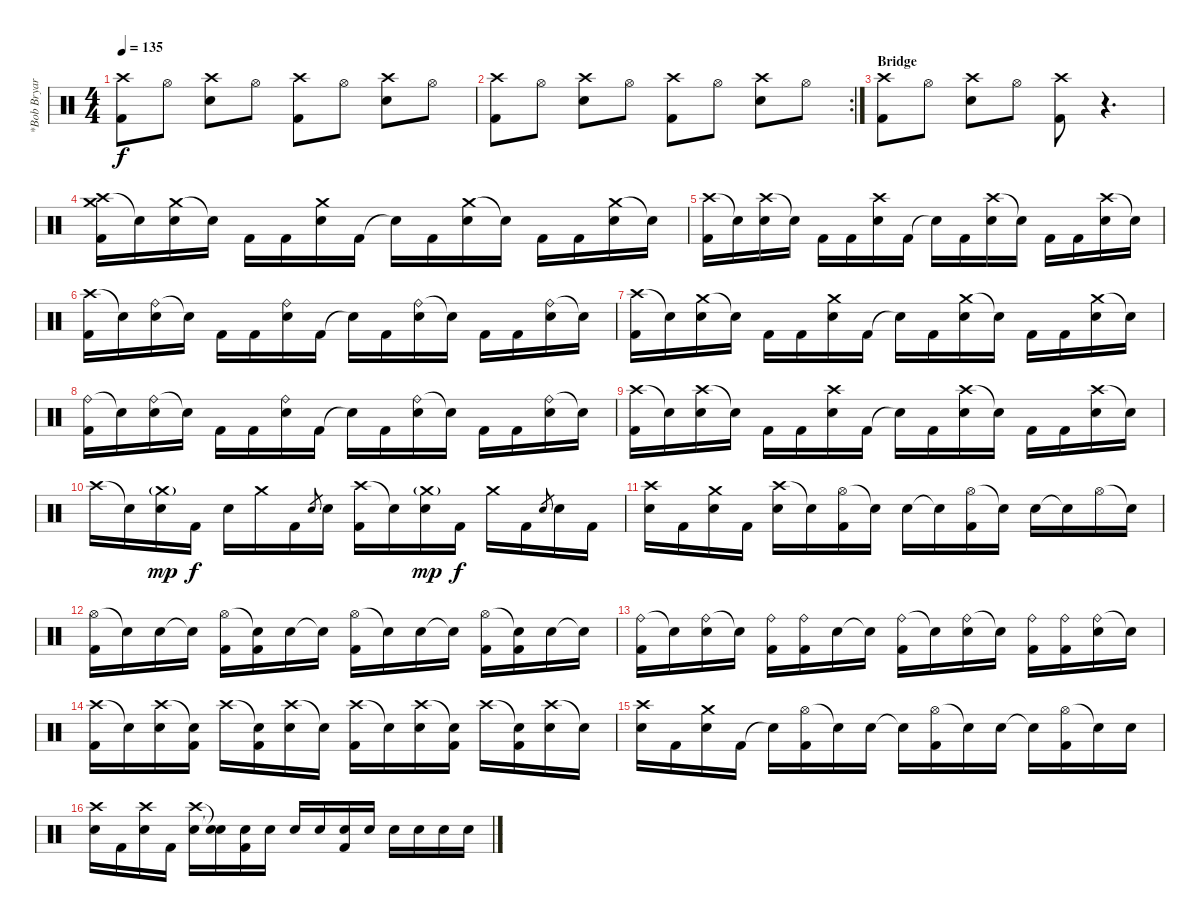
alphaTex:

\track ("*Bob Bryar" "*Bob Bryar") {instrument percussion}
\staff {score}
\articulation defaults
\ts (4 4)
\tempo 135
\clef neutral
\ks c
("Crash high (hit)" "Kick (hit) 2").8{dy f} "Hi-Hat (open)".8 ("Crash high (hit)" "Electric Snare (hit)").8 "Hi-Hat (open)".8 ("Crash high (hit)" "Kick (hit) 2").8 "Hi-Hat (open)".8 ("Crash high (hit)" "Electric Snare (hit)").8 "Hi-Hat (open)".8 |
\rc 2
("Crash high (hit)" "Kick (hit) 2").8 "Hi-Hat (open)".8 ("Crash high (hit)" "Electric Snare (hit)").8 "Hi-Hat (open)".8 ("Crash high (hit)" "Kick (hit) 2").8 "Hi-Hat (open)".8 ("Crash high (hit)" "Electric Snare (hit)").8 "Hi-Hat (open)".8 |
\section ("" "Bridge")
("Crash high (hit)" "Kick (hit) 2").8 "Hi-Hat (open)".8 ("Crash high (hit)" "Electric Snare (hit)").8 "Hi-Hat (open)".8 ("Crash high (hit)" "Kick (hit) 2").8 r.4{d} |
("Crash high (hit)" "Crash medium (hit)" "Kick (hit) 2").16 "Snare (hit)"{t}.16 ("Crash medium (hit)" "Electric Snare (hit)").16 "Snare (hit)"{t}.16 "Kick (hit) 2".16 "Kick (hit) 2".16 ("Crash medium (hit)" "Electric Snare (hit)").16 "Kick (hit) 2".16 "Snare (hit)"{t}.16 "Kick (hit) 2".16 ("Crash medium (hit)" "Electric Snare (hit)").16 "Snare (hit)"{t}.16 "Kick (hit) 2".16 "Kick (hit) 2".16 ("Crash medium (hit)" "Electric Snare (hit)").16 "Snare (hit)"{t}.16 |
("Crash high (hit)" "Kick (hit) 2").16 "Snare (hit)"{t}.16 ("Crash high (hit)" "Electric Snare (hit)").16 "Snare (hit)"{t}.16 "Kick (hit) 2".16 "Kick (hit) 2".16 ("Crash high (hit)" "Electric Snare (hit)").16 "Kick (hit) 2".16 "Snare (hit)"{t}.16 "Kick (hit) 2".16 ("Crash high (hit)" "Electric Snare (hit)").16 "Snare (hit)"{t}.16 "Kick (hit) 2".16 "Kick (hit) 2".16 ("Crash high (hit)" "Electric Snare (hit)").16 "Snare (hit)"{t}.16 |
("Crash high (hit)" "Kick (hit) 2").16 "Snare (hit)"{t}.16 ("Ride (bell)" "Electric Snare (hit)").16 "Snare (hit)"{t}.16 "Kick (hit) 2".16 "Kick (hit) 2".16 ("Ride (bell)" "Electric Snare (hit)").16 "Kick (hit) 2".16 "Snare (hit)"{t}.16 "Kick (hit) 2".16 ("Ride (bell)" "Electric Snare (hit)").16 "Snare (hit)"{t}.16 "Kick (hit) 2".16 "Kick (hit) 2".16 ("Ride (bell)" "Electric Snare (hit)").16 "Snare (hit)"{t}.16 |
("Crash high (hit)" "Kick (hit) 2").16 "Snare (hit)"{t}.16 ("Crash medium (hit)" "Electric Snare (hit)").16 "Snare (hit)"{t}.16 "Kick (hit) 2".16 "Kick (hit) 2".16 ("Crash medium (hit)" "Electric Snare (hit)").16 "Kick (hit) 2".16 "Snare (hit)"{t}.16 "Kick (hit) 2".16 ("Crash medium (hit)" "Electric Snare (hit)").16 "Snare (hit)"{t}.16 "Kick (hit) 2".16 "Kick (hit) 2".16 ("Crash medium (hit)" "Electric Snare (hit)").16 "Snare (hit)"{t}.16 |
("Ride (bell)" "Kick (hit) 2").16 "Snare (hit)"{t}.16 ("Ride (bell)" "Electric Snare (hit)").16 "Snare (hit)"{t}.16 "Kick (hit) 2".16 "Kick (hit) 2".16 ("Ride (bell)" "Electric Snare (hit)").16 "Kick (hit) 2".16 "Snare (hit)"{t}.16 "Kick (hit) 2".16 ("Ride (bell)" "Electric Snare (hit)").16 "Snare (hit)"{t}.16 "Kick (hit) 2".16 "Kick (hit) 2".16 ("Ride (bell)" "Electric Snare (hit)").16 "Snare (hit)"{t}.16 |
("Crash high (hit)" "Kick (hit) 2").16 "Snare (hit)"{t}.16 ("Crash high (hit)" "Electric Snare (hit)").16 "Snare (hit)"{t}.16 "Kick (hit) 2".16 "Kick (hit) 2".16 ("Crash high (hit)" "Electric Snare (hit)").16 "Kick (hit) 2".16 "Snare (hit)"{t}.16 "Kick (hit) 2".16 ("Crash high (hit)" "Electric Snare (hit)").16 "Snare (hit)"{t}.16 "Kick (hit) 2".16 "Kick (hit) 2".16 ("Crash high (hit)" "Electric Snare (hit)").16 "Snare (hit)"{t}.16 |
"Crash high (hit)".16 "Snare (hit)"{t}.16 ("Crash medium (hit)"{g} "Electric Snare (hit)").16{dy mp} "Kick (hit) 2".16{dy f} "Electric Snare (hit)".16 "Crash medium (hit)".16 "Kick (hit) 2".16 "Electric Snare (hit)".8{gr} "Electric Snare (hit)".16 ("Crash high (hit)" "Kick (hit) 2").16 "Snare (hit)"{t}.16 ("Crash medium (hit)"{g} "Electric Snare (hit)").16{dy mp} "Kick (hit) 2".16{dy f} "Crash medium (hit)".16 "Kick (hit) 2".16 "Electric Snare (hit)".8{gr} "Electric Snare (hit)".16 "Kick (hit) 2".16 |
("Crash high (hit)" "Electric Snare (hit)").16 "Kick (hit) 2".16 ("Crash medium (hit)" "Electric Snare (hit)").16 "Kick (hit) 2".16 ("Crash high (hit)" "Electric Snare (hit)").16 "Snare (hit)"{t}.16 ("Hi-Hat (open)" "Kick (hit) 2").16 "Snare (hit)"{t}.16 "Electric Snare (hit)".16 "Snare (hit)"{t}.16 ("Hi-Hat (open)" "Kick (hit) 2").16 "Snare (hit)"{t}.16 "Electric Snare (hit)".16 "Snare (hit)"{t}.16 "Hi-Hat (open)".16 "Snare (hit)"{t}.16 |
("Hi-Hat (open)" "Kick (hit) 2").16 "Snare (hit)"{t}.16 "Electric Snare (hit)".16 "Snare (hit)"{t}.16 ("Hi-Hat (open)" "Kick (hit) 2").16 ("Snare (hit)"{t} "Kick (hit) 2").16 "Electric Snare (hit)".16 "Snare (hit)"{t}.16 ("Hi-Hat (open)" "Kick (hit) 2").16 "Snare (hit)"{t}.16 "Electric Snare (hit)".16 "Snare (hit)"{t}.16 ("Hi-Hat (open)" "Kick (hit) 2").16 ("Snare (hit)"{t} "Kick (hit) 2").16 "Electric Snare (hit)".16 "Snare (hit)"{t}.16 |
("Ride (bell)" "Kick (hit) 2").16 "Snare (hit)"{t}.16 ("Ride (bell)" "Electric Snare (hit)").16 "Snare (hit)"{t}.16 ("Ride (bell)" "Kick (hit) 2").16 ("Ride (bell)" "Kick (hit) 2").16 "Electric Snare (hit)".16 "Snare (hit)"{t}.16 ("Ride (bell)" "Kick (hit) 2").16 "Snare (hit)"{t}.16 ("Ride (bell)" "Electric Snare (hit)").16 "Snare (hit)"{t}.16 ("Ride (bell)" "Kick (hit) 2").16 ("Ride (bell)" "Kick (hit) 2").16 ("Ride (bell)" "Electric Snare (hit)").16 "Snare (hit)"{t}.16 |
("Crash high (hit)" "Kick (hit) 2").16 "Snare (hit)"{t}.16 ("Crash high (hit)" "Electric Snare (hit)").16 ("Snare (hit)"{t} "Kick (hit) 2").16 "Crash high (hit)".16 ("Snare (hit)"{t} "Kick (hit) 2").16 ("Crash high (hit)" "Electric Snare (hit)").16 "Snare (hit)"{t}.16 ("Crash high (hit)" "Kick (hit) 2").16 "Snare (hit)"{t}.16 ("Crash high (hit)" "Electric Snare (hit)").16 ("Snare (hit)"{t} "Kick (hit) 2").16 "Crash high (hit)".16 ("Snare (hit)"{t} "Kick (hit) 2").16 ("Crash high (hit)" "Electric Snare (hit)").16 "Snare (hit)"{t}.16 |
("Crash high (hit)" "Electric Snare (hit)").16 "Kick (hit) 2".16 ("Crash medium (hit)" "Electric Snare (hit)").16 "Kick (hit) 2".16 "Snare (hit)"{t}.16 ("Hi-Hat (open)" "Kick (hit) 2").16 "Snare (hit)"{t}.16 "Electric Snare (hit)".16 "Snare (hit)"{t}.16 ("Hi-Hat (open)" "Kick (hit) 2").16 "Snare (hit)"{t}.16 "Electric Snare (hit)".16 "Snare (hit)"{t}.16 ("Hi-Hat (open)" "Kick (hit) 2").16 "Snare (hit)"{t}.16 "Electric Snare (hit)".16 |
("Crash high (hit)" "Electric Snare (hit)").16 "Kick (hit) 2".16 ("Crash high (hit)" "Electric Snare (hit)").16 "Kick (hit) 2".16 ("Crash high (hit)" "Electric Snare (hit)").16 ("Snare (hit)"{t} "Snare (hit)"{t}).16 ("Electric Snare (hit)" "Kick (hit) 2").16 "Electric Snare (hit)".16 "Electric Snare (hit)".16 "Electric Snare (hit)".16 ("Electric Snare (hit)" "Kick (hit) 2").16 "Electric Snare (hit)".16 "Electric Snare (hit)".16 "Electric Snare (hit)".16 "Electric Snare (hit)".16 "Electric Snare (hit)".16
